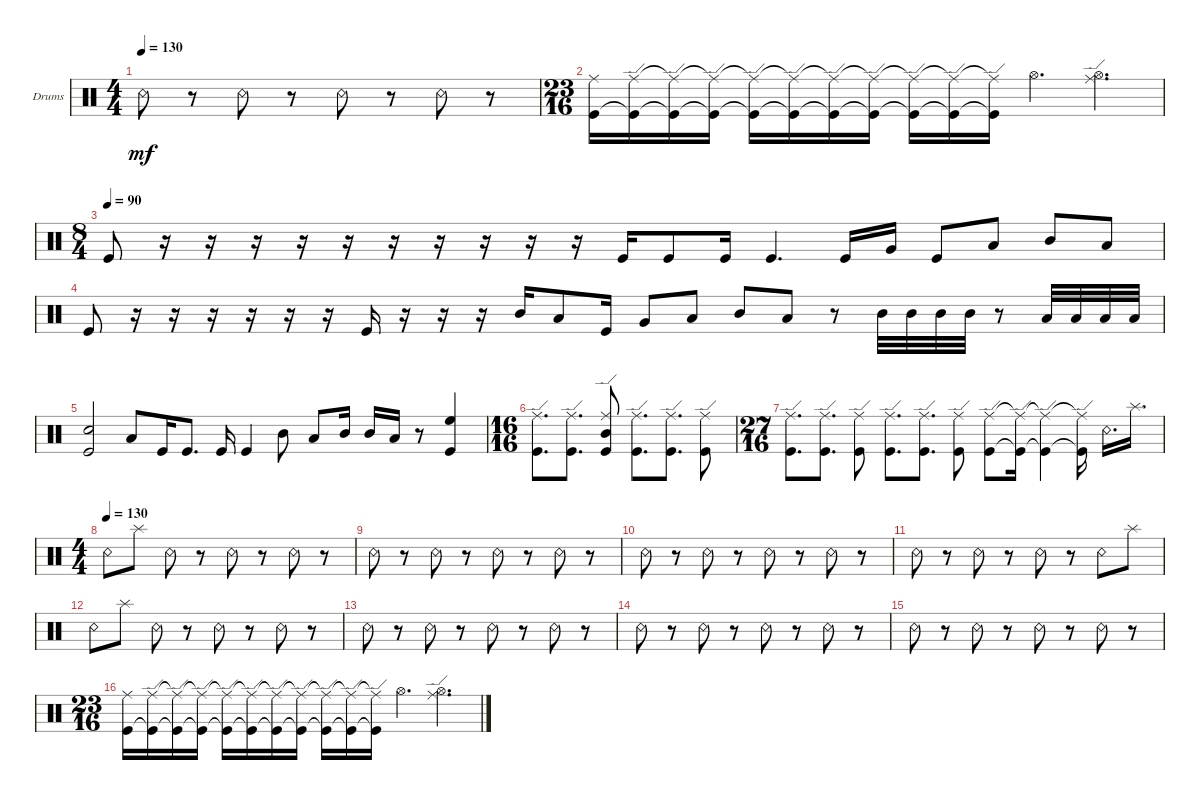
\defaultSystemsLayout 4
\bracketExtendMode groupsimilarinstruments
\firstSystemTrackNameOrientation horizontal
\otherSystemsTrackNameOrientation horizontal
\track ("Drumkit" "Drums") {instrument percussion}
\staff {score}
\articulation defaults
\ts (4 4)
\tempo 130
\clef neutral
\scale
0.333333
\ks c "Snare (rim shot)".8{dy mf}
r.8 "Snare (rim shot)".8 r.8 "Snare (rim shot)".8 r.8 "Snare (rim shot)".8 r.8 |
\ts (23 16)
\scale
0.391473 ("Ride (middle)" "Kick (hit)").16 ("Ride (edge)" "Kick (hit)"{t}).16 ("Ride (edge)"{t} "Kick (hit)"{t}).16 ("Ride (edge)"{t} "Kick (hit)"{t}).16 ("Ride (edge)"{t} "Kick (hit)"{t}).16 ("Ride (edge)"{t} "Kick (hit)"{t}).16 ("Ride (edge)"{t} "Kick (hit)"{t}).16 ("Ride (edge)"{t} "Kick (hit)"{t}).16 ("Ride (edge)"{t} "Kick (hit)"{t}).16 ("Ride (edge)"{t} "Kick (hit)"{t}).16 ("Ride (edge)"{t} "Kick (hit)"{t}).16 "Hi-Hat (open)".4{d} ("Ride (edge)" "Hi-Hat (open)").4{d} |
\ts (8 4)
\tempo (90)
"Kick (hit)".8 r.16 r.16 r.16 r.16 r.16 r.16 r.16 r.16 r.16 r.16 "Kick (hit)".16 "Kick (hit)".8 "Kick (hit)".16 "Kick (hit)".4{d} "Kick (hit)".16 "Very Low Tom (hit)".16 "Kick (hit)".8 "Low Tom (hit)".8 "Mid Tom (hit)".8 "Low Tom (hit)".8 |
"Kick (hit)".8 r.16 r.16 r.16 r.16 r.16 r.16 "Kick (hit)".16 r.16 r.16 r.16 "Mid Tom (hit)".16 "Low Tom (hit)".8 "Kick (hit)".16 "Very Low Tom (hit)".8 "Low Tom (hit)".8 "Mid Tom (hit)".8 "Low Tom (hit)".8 r.8 "Mid Tom (hit)".32 "Mid Tom (hit)".32 "Mid Tom (hit)".32 "Mid Tom (hit)".32 r.8 "Low Tom (hit)".32 "Low Tom (hit)".32 "Low Tom (hit)".32 "Low Tom (hit)".32 |
("Kick (hit)" "Snare (hit) 2").2 "Low Tom (hit)".8 "Kick (hit)".16 "Kick (hit)".8{d} "Kick (hit)".16 "Kick (hit)".4 "Mid Tom (hit)".8 "Low Tom (hit)".8 "Mid Tom (hit)".16 "Mid Tom (hit)".16 "Low Tom (hit)".16 r.8 ("Kick (hit)" "High Floor Tom (hit)").4 |
\ts (16 16)
("Ride (edge)" "Kick (hit)").8{d} ("Ride (edge)" "Kick (hit)").8{d} ("Ride (edge)" "Mid Tom (hit)" "Kick (hit)").8 ("Ride (edge)" "Kick (hit)").8{d} ("Ride (edge)" "Kick (hit)").8{d} ("Ride (edge)" "Kick (hit)").8 |
\ts (27 16)
("Ride (edge)" "Kick (hit)").8{d} ("Ride (edge)" "Kick (hit)").8{d} ("Ride (edge)" "Kick (hit)").8 ("Ride (edge)" "Kick (hit)").8{d} ("Ride (edge)" "Kick (hit)").8{d} ("Ride (edge)" "Kick (hit)").8 ("Ride (edge)" "Kick (hit)").8 ("Ride (edge)"{t} "Kick (hit)"{t}).16 ("Ride (edge)"{t} "Kick (hit)"{t}).4 ("Ride (edge)"{t} "Kick (hit)"{t}).16 "Snare (rim shot)".16{d} "Splash (hit)".16{d} |
\ts (4 4)
\tempo (130)
"Snare (rim shot)".8 "Splash (hit)".8 "Snare (rim shot)".8 r.8 "Snare (rim shot)".8 r.8 "Snare (rim shot)".8 r.8 |
"Snare (rim shot)".8 r.8 "Snare (rim shot)".8 r.8 "Snare (rim shot)".8 r.8 "Snare (rim shot)".8 r.8 |
"Snare (rim shot)".8 r.8 "Snare (rim shot)".8 r.8 "Snare (rim shot)".8 r.8 "Snare (rim shot)".8 r.8 |
"Snare (rim shot)".8 r.8 "Snare (rim shot)".8 r.8 "Snare (rim shot)".8 r.8 "Snare (rim shot)".8 "Splash (hit)".8 |
"Snare (rim shot)".8 "Splash (hit)".8 "Snare (rim shot)".8 r.8 "Snare (rim shot)".8 r.8 "Snare (rim shot)".8 r.8 |
"Snare (rim shot)".8 r.8 "Snare (rim shot)".8 r.8 "Snare (rim shot)".8 r.8 "Snare (rim shot)".8 r.8 |
"Snare (rim shot)".8 r.8 "Snare (rim shot)".8 r.8 "Snare (rim shot)".8 r.8 "Snare (rim shot)".8 r.8 |
"Snare (rim shot)".8 r.8 "Snare (rim shot)".8 r.8 "Snare (rim shot)".8 r.8 "Snare (rim shot)".8 r.8 |
\ts (23 16)
("Ride (middle)" "Kick (hit)").16 ("Ride (edge)" "Kick (hit)"{t}).16 ("Ride (edge)"{t} "Kick (hit)"{t}).16 ("Ride (edge)"{t} "Kick (hit)"{t}).16 ("Ride (edge)"{t} "Kick (hit)"{t}).16 ("Ride (edge)"{t} "Kick (hit)"{t}).16 ("Ride (edge)"{t} "Kick (hit)"{t}).16 ("Ride (edge)"{t} "Kick (hit)"{t}).16 ("Ride (edge)"{t} "Kick (hit)"{t}).16 ("Ride (edge)"{t} "Kick (hit)"{t}).16 ("Ride (edge)"{t} "Kick (hit)"{t}).16 "Hi-Hat (open)".4{d} ("Ride (edge)" "Hi-Hat (open)").4{d}
